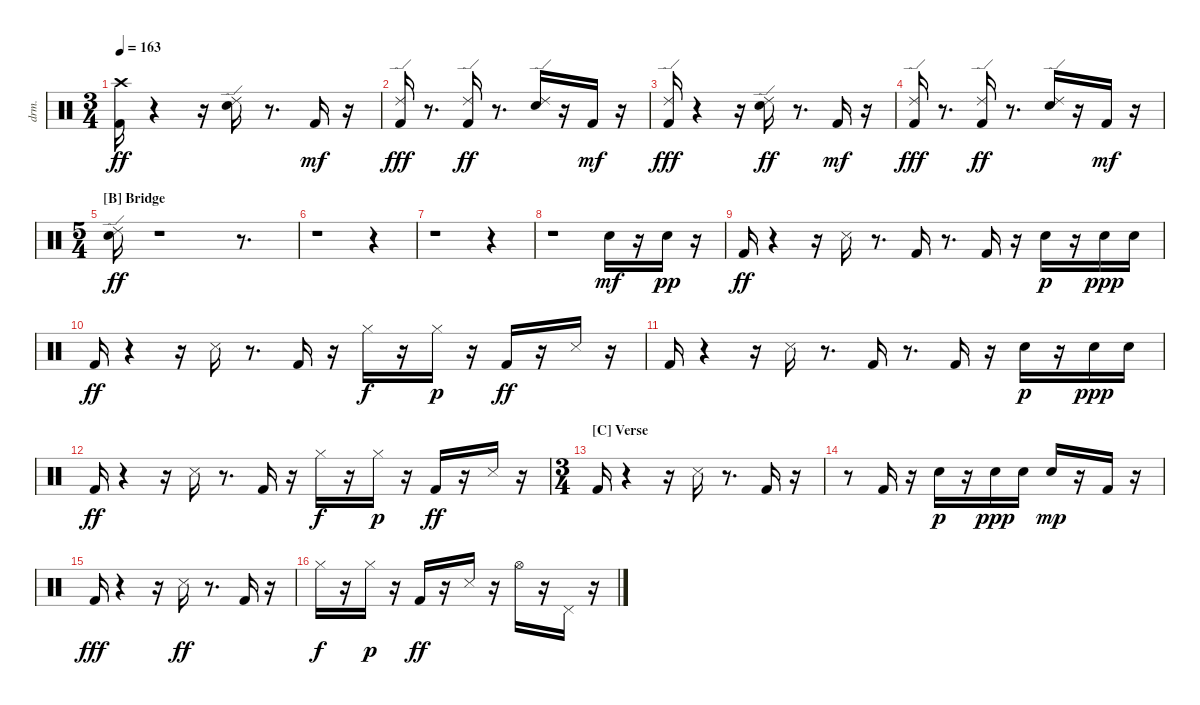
\bracketExtendMode nobrackets
\track ("EZdrummer 3" "drm.") {instrument percussion}
\staff {score}
\articulation defaults
\ts (3 4)
\tempo 163
\clef neutral
\ks aminor
("Kick (hit) 2" "Crash high (hit)"{acc #}).16{dy ff} r.4 r.16 ("Snare (hit) 2" "Ride (edge) 2").16 r.8{d} "Kick (hit) 2".16{dy mf} r.16 |
("Kick (hit) 2" "Ride (edge) 2").16{dy fff} r.8{d} ("Kick (hit) 2" "Ride (edge) 2").16{dy ff} r.8{d} ("Snare (hit) 2" "Ride (edge) 2").16 r.16 "Kick (hit) 2".16{dy mf} r.16 |
("Kick (hit) 2" "Ride (edge) 2").16{dy fff} r.4 r.16 ("Snare (hit) 2" "Ride (edge) 2").16{dy ff} r.8{d} "Kick (hit) 2".16{dy mf} r.16 |
("Kick (hit) 2" "Ride (edge) 2").16{dy fff} r.8{d} ("Kick (hit) 2" "Ride (edge) 2").16{dy ff} r.8{d} ("Snare (hit) 2" "Ride (edge) 2").16 r.16 "Kick (hit) 2".16{dy mf} r.16 |
\ts (5 4)
\section ("B" "Bridge")
("Snare (hit) 2" "Ride (edge) 2").16{dy ff} r.1 r.8{d} |
r.1 r.4 |
r.1 r.4 |
r.1 "Snare (hit) 2".16{dy mf} r.16 "Snare (hit) 2".16{dy pp} r.16 |
"Kick (hit) 2".16{dy ff} r.4 r.16 "Snare (side stick) 3"{acc #}.16 r.8{d} "Kick (hit) 2".16 r.8{d} "Kick (hit) 2".16 r.16 "Snare (hit) 2".16{dy p} r.16 "Snare (hit) 2".16{dy ppp} "Snare (hit) 2".16 |
"Kick (hit) 2".16{dy ff} r.4 r.16 "Snare (side stick) 3"{acc #}.16 r.8{d} "Kick (hit) 2".16 r.16 "Hi-Hat (closed)"{acc #}.16{dy f} r.16 "Hi-Hat (closed)"{acc #}.16{dy p} r.16 "Kick (hit) 2".16{dy ff} r.16 "Snare (side stick) 3"{acc #}.16 r.16 |
"Kick (hit) 2".16 r.4 r.16 "Snare (side stick) 3"{acc #}.16 r.8{d} "Kick (hit) 2".16 r.8{d} "Kick (hit) 2".16 r.16 "Snare (hit) 2".16{dy p} r.16 "Snare (hit) 2".16{dy ppp} "Snare (hit) 2".16 |
"Kick (hit) 2".16{dy ff} r.4 r.16 "Snare (side stick) 3"{acc #}.16 r.8{d} "Kick (hit) 2".16 r.16 "Hi-Hat (closed)"{acc #}.16{dy f} r.16 "Hi-Hat (closed)"{acc #}.16{dy p} r.16 "Kick (hit) 2".16{dy ff} r.16 "Snare (side stick) 3"{acc #}.16 r.16 |
\ts (3 4)
\section ("C" "Verse")
"Kick (hit) 2".16 r.4 r.16 "Snare (side stick) 3"{acc #}.16 r.8{d} "Kick (hit) 2".16 r.16 |
r.8 "Kick (hit) 2".16 r.16 "Snare (hit) 2".16{dy p} r.16 "Snare (hit) 2".16{dy ppp} "Snare (hit) 2".16 "Snare (hit) 2".16{dy mp} r.16 "Kick (hit) 2".16 r.16 |
"Kick (hit) 2".16{dy fff} r.4 r.16 "Snare (side stick) 3"{acc #}.16{dy ff} r.8{d} "Kick (hit) 2".16 r.16 |
"Hi-Hat (closed)"{acc #}.16{dy f} r.16 "Hi-Hat (closed)"{acc #}.16{dy p} r.16 "Kick (hit) 2".16{dy ff} r.16 "Snare (side stick) 3"{acc #}.16 r.16 "Hi-Hat (open)"{acc #}.16 r.16 "Pedal Hi-Hat (hit)"{acc #}.16 r.16
